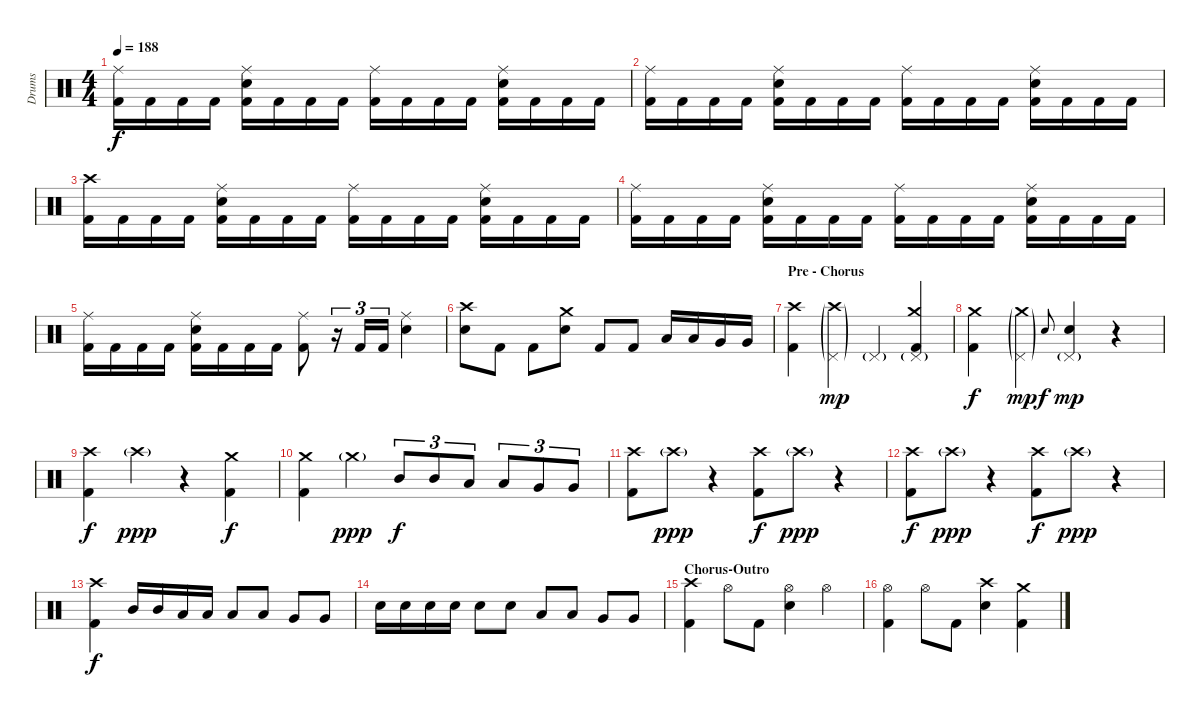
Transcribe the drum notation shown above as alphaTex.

\track ("Drums" "Drums") {instrument percussion}
\staff {score}
\articulation defaults
\ts (4 4)
\tempo 188
\clef neutral
\ks c
("Ride (middle)" "Kick (hit) 2").16{dy f} "Kick (hit) 2".16 "Kick (hit) 2".16 "Kick (hit) 2".16 ("Ride (middle)" "Electric Snare (hit)" "Kick (hit) 2").16 "Kick (hit) 2".16 "Kick (hit) 2".16 "Kick (hit) 2".16 ("Ride (middle)" "Kick (hit) 2").16 "Kick (hit) 2".16 "Kick (hit) 2".16 "Kick (hit) 2".16 ("Ride (middle)" "Electric Snare (hit)" "Kick (hit) 2").16 "Kick (hit) 2".16 "Kick (hit) 2".16 "Kick (hit) 2".16 |
("Ride (middle)" "Kick (hit) 2").16 "Kick (hit) 2".16 "Kick (hit) 2".16 "Kick (hit) 2".16 ("Ride (middle)" "Electric Snare (hit)" "Kick (hit) 2").16 "Kick (hit) 2".16 "Kick (hit) 2".16 "Kick (hit) 2".16 ("Ride (middle)" "Kick (hit) 2").16 "Kick (hit) 2".16 "Kick (hit) 2".16 "Kick (hit) 2".16 ("Ride (middle)" "Electric Snare (hit)" "Kick (hit) 2").16 "Kick (hit) 2".16 "Kick (hit) 2".16 "Kick (hit) 2".16 |
("Crash high (hit)" "Kick (hit) 2").16 "Kick (hit) 2".16 "Kick (hit) 2".16 "Kick (hit) 2".16 ("Ride (middle)" "Electric Snare (hit)" "Kick (hit) 2").16 "Kick (hit) 2".16 "Kick (hit) 2".16 "Kick (hit) 2".16 ("Ride (middle)" "Kick (hit) 2").16 "Kick (hit) 2".16 "Kick (hit) 2".16 "Kick (hit) 2".16 ("Ride (middle)" "Electric Snare (hit)" "Kick (hit) 2").16 "Kick (hit) 2".16 "Kick (hit) 2".16 "Kick (hit) 2".16 |
("Ride (middle)" "Kick (hit) 2").16 "Kick (hit) 2".16 "Kick (hit) 2".16 "Kick (hit) 2".16 ("Ride (middle)" "Electric Snare (hit)" "Kick (hit) 2").16 "Kick (hit) 2".16 "Kick (hit) 2".16 "Kick (hit) 2".16 ("Ride (middle)" "Kick (hit) 2").16 "Kick (hit) 2".16 "Kick (hit) 2".16 "Kick (hit) 2".16 ("Ride (middle)" "Electric Snare (hit)" "Kick (hit) 2").16 "Kick (hit) 2".16 "Kick (hit) 2".16 "Kick (hit) 2".16 |
("Ride (middle)" "Kick (hit) 2").16 "Kick (hit) 2".16 "Kick (hit) 2".16 "Kick (hit) 2".16 ("Ride (middle)" "Electric Snare (hit)" "Kick (hit) 2").16 "Kick (hit) 2".16 "Kick (hit) 2".16 "Kick (hit) 2".16 ("Ride (middle)" "Kick (hit) 2").8 r.16{tu (3 2)} "Kick (hit) 2".16{tu (3 2)} "Kick (hit) 2".16{tu (3 2)} ("Ride (middle)" "Electric Snare (hit)").4 |
("Crash high (hit)" "Electric Snare (hit)").8 "Kick (hit) 2".8 "Kick (hit) 2".8 ("Crash medium (hit)" "Electric Snare (hit)").8 "Kick (hit) 2".8 "Kick (hit) 2".8 "Low Tom (hit)".16 "Low Tom (hit)".16 "Very Low Tom (hit)".16 "Very Low Tom (hit)".16 |
\section ("" "Pre - Chorus")
("Crash high (hit)" "Kick (hit) 2").4 ("Crash high (hit)"{g} "Pedal Hi-Hat (hit)"{g}).4{dy mp} "Pedal Hi-Hat (hit)"{g}.4 ("Crash medium (hit)" "Pedal Hi-Hat (hit)"{g} "Kick (hit) 2").4 |
("Crash medium (hit)" "Kick (hit) 2").4{dy f} ("Crash medium (hit)"{g} "Pedal Hi-Hat (hit)"{g}).4{dy mp} "Electric Snare (hit)".8{gr onbeat dy f} ("Electric Snare (hit)" "Pedal Hi-Hat (hit)"{g}).4{dy mp} r.4 |
("Crash high (hit)" "Kick (hit) 2").4{dy f} "Crash high (hit)"{g}.4{dy ppp} r.4 ("Crash medium (hit)" "Kick (hit) 2").4{dy f} |
("Crash medium (hit)" "Kick (hit) 2").4 "Crash medium (hit)"{g}.4{dy ppp} "Mid Tom (hit)".8{tu (3 2) dy f} "Mid Tom (hit)".8{tu (3 2)} "Low Tom (hit)".8{tu (3 2)} "Low Tom (hit)".8{tu (3 2)} "Very Low Tom (hit)".8{tu (3 2)} "Very Low Tom (hit)".8{tu (3 2)} |
("Crash high (hit)" "Kick (hit) 2").8 "Crash high (hit)"{g}.8{dy ppp} r.4 ("Crash high (hit)" "Kick (hit) 2").8{dy f} "Crash high (hit)"{g}.8{dy ppp} r.4 |
("Crash high (hit)" "Kick (hit) 2").8{dy f} "Crash high (hit)"{g}.8{dy ppp} r.4 ("Crash high (hit)" "Kick (hit) 2").8{dy f} "Crash high (hit)"{g}.8{dy ppp} r.4 |
("Crash high (hit)" "Kick (hit) 2").4{dy f} "Mid Tom (hit)".16 "Mid Tom (hit)".16 "Low Tom (hit)".16 "Low Tom (hit)".16 "Low Tom (hit)".8 "Low Tom (hit)".8 "Very Low Tom (hit)".8 "Very Low Tom (hit)".8 |
"Electric Snare (hit)".16 "Electric Snare (hit)".16 "Electric Snare (hit)".16 "Electric Snare (hit)".16 "Electric Snare (hit)".8 "Electric Snare (hit)".8 "Low Tom (hit)".8 "Low Tom (hit)".8 "Very Low Tom (hit)".8 "Very Low Tom (hit)".8 |
\section ("" "Chorus-Outro")
("Crash high (hit)" "Kick (hit) 2").4 "Hi-Hat (open)".8 "Kick (hit) 2".8 ("Hi-Hat (open)" "Electric Snare (hit)").4 "Hi-Hat (open)".4 |
("Hi-Hat (open)" "Kick (hit) 2").4 "Hi-Hat (open)".8 "Kick (hit) 2".8 ("Crash high (hit)" "Electric Snare (hit)").4 ("Crash medium (hit)" "Kick (hit) 2").4
